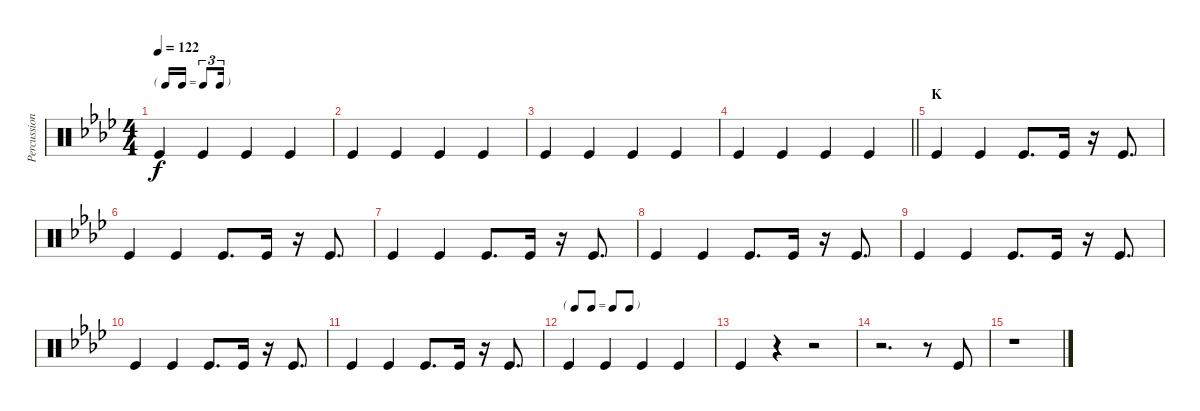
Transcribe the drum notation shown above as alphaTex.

\track ("Percussion Foot" "Percussion") {instrument percussion}
\staff {score}
\articulation defaults
\ts (4 4)
\tf triplet16th
\tempo 122
\clef neutral
\ks ab "Kick (hit)".4{dy f} "Kick (hit)".4 "Kick (hit)".4 "Kick (hit)".4
|
"Kick (hit)".4 "Kick (hit)".4 "Kick (hit)".4 "Kick (hit)".4 |
"Kick (hit)".4 "Kick (hit)".4 "Kick (hit)".4 "Kick (hit)".4 |
\barLineRight lightlight "Kick (hit)".4 "Kick (hit)".4 "Kick (hit)".4 "Kick (hit)".4
|
\section ("" "K")
"Kick (hit)".4 "Kick (hit)".4 "Kick (hit)".8{d} "Kick (hit)".16 r.16 "Kick (hit)".8{d} |
"Kick (hit)".4 "Kick (hit)".4 "Kick (hit)".8{d} "Kick (hit)".16 r.16 "Kick (hit)".8{d} |
"Kick (hit)".4 "Kick (hit)".4 "Kick (hit)".8{d} "Kick (hit)".16 r.16 "Kick (hit)".8{d} |
"Kick (hit)".4 "Kick (hit)".4 "Kick (hit)".8{d} "Kick (hit)".16 r.16 "Kick (hit)".8{d} |
"Kick (hit)".4 "Kick (hit)".4 "Kick (hit)".8{d} "Kick (hit)".16 r.16 "Kick (hit)".8{d} |
"Kick (hit)".4 "Kick (hit)".4 "Kick (hit)".8{d} "Kick (hit)".16 r.16 "Kick (hit)".8{d} |
"Kick (hit)".4 "Kick (hit)".4 "Kick (hit)".8{d} "Kick (hit)".16 r.16 "Kick (hit)".8{d} |
\tf none "Kick (hit)".4 "Kick (hit)".4 "Kick (hit)".4 "Kick (hit)".4
|
"Kick (hit)".4 r.4 r.2 |
r.2{d} r.8 "Kick (hit)".8 |
r.1
